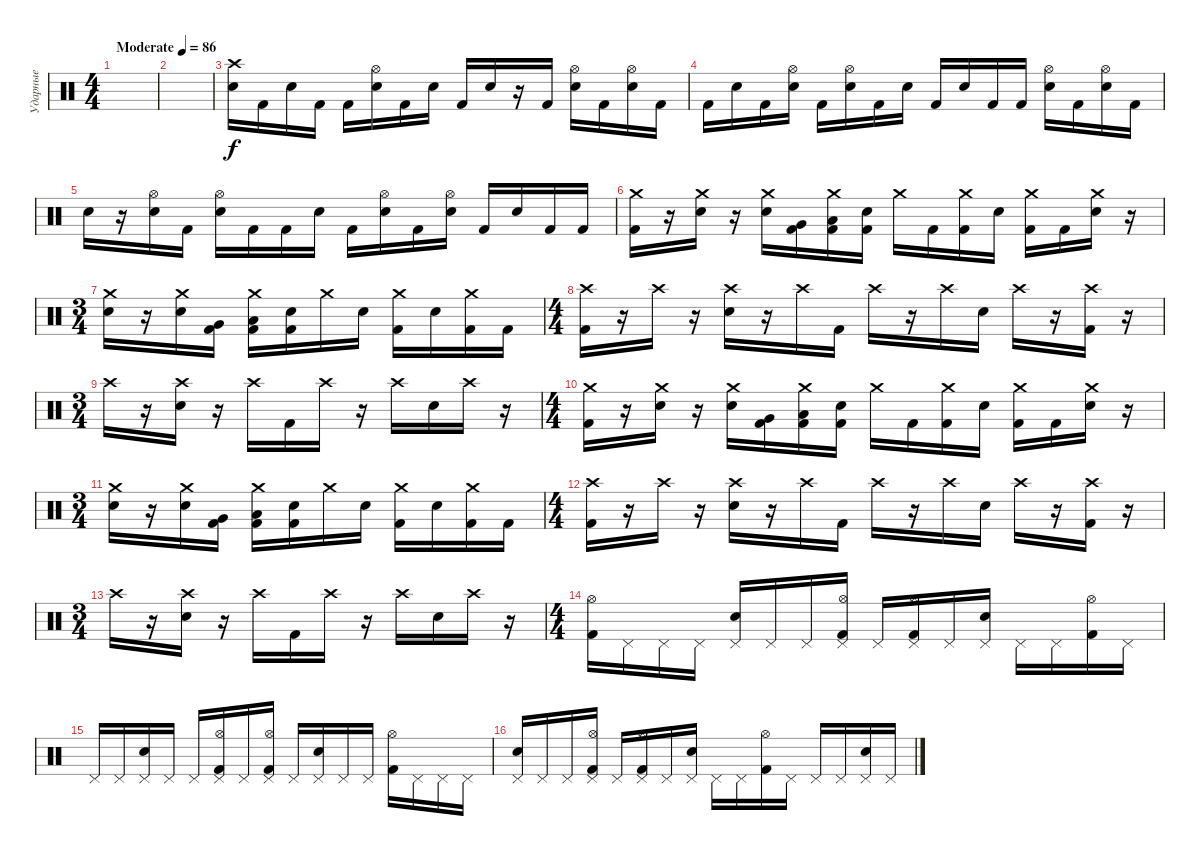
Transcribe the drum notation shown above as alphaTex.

\track ("Ударные" "Ударные") {instrument percussion}
\staff {score}
\articulation defaults
\ts (4 4)
\tempo (86 "Moderate")
\clef neutral
\ks c
|
|
("Crash high (hit)" "Electric Snare (hit)").16 "Kick (hit) 2".16 "Electric Snare (hit)".16 "Kick (hit) 2".16 "Kick (hit) 2".16 ("Hi-Hat (open)" "Electric Snare (hit)").16 "Kick (hit) 2".16 "Electric Snare (hit)".16 "Kick (hit) 2".16 "Electric Snare (hit)".16 r.16 "Kick (hit) 2".16 ("Hi-Hat (open)" "Electric Snare (hit)").16 "Kick (hit) 2".16 ("Hi-Hat (open)" "Electric Snare (hit)").16 "Kick (hit) 2".16 |
"Kick (hit) 2".16 "Electric Snare (hit)".16 "Kick (hit) 2".16 ("Hi-Hat (open)" "Electric Snare (hit)").16 "Kick (hit) 2".16 ("Hi-Hat (open)" "Electric Snare (hit)").16 "Kick (hit) 2".16 "Electric Snare (hit)".16 "Kick (hit) 2".16 "Electric Snare (hit)".16 "Kick (hit) 2".16 "Kick (hit) 2".16 ("Hi-Hat (open)" "Electric Snare (hit)").16 "Kick (hit) 2".16 ("Hi-Hat (open)" "Electric Snare (hit)").16 "Kick (hit) 2".16 |
"Electric Snare (hit)".16 r.16 ("Hi-Hat (open)" "Electric Snare (hit)").16 "Kick (hit) 2".16 ("Hi-Hat (open)" "Electric Snare (hit)").16 "Kick (hit) 2".16 "Kick (hit) 2".16 "Electric Snare (hit)".16 "Kick (hit) 2".16 ("Hi-Hat (open)" "Electric Snare (hit)").16 "Kick (hit) 2".16 ("Hi-Hat (open)" "Electric Snare (hit)").16 "Kick (hit) 2".16 "Electric Snare (hit)".16 "Kick (hit) 2".16 "Kick (hit) 2".16 |
("Crash medium (hit)" "Kick (hit) 2").16 r.16 ("Crash medium (hit)" "Electric Snare (hit)").16 r.16 ("Crash medium (hit)" "Electric Snare (hit)").16 ("Very Low Tom (hit)" "Kick (hit) 2").16 ("Crash medium (hit)" "Low Floor Tom (hit)" "Kick (hit) 2").16 ("Electric Snare (hit)" "Kick (hit) 2").16 "Crash medium (hit)".16 "Kick (hit) 2".16 ("Crash medium (hit)" "Kick (hit) 2").16 "Electric Snare (hit)".16 ("Crash medium (hit)" "Kick (hit) 2").16 "Kick (hit) 2".16 ("Crash medium (hit)" "Electric Snare (hit)").16 r.16 |
\ts (3 4)
("Crash medium (hit)" "Electric Snare (hit)").16 r.16 ("Crash medium (hit)" "Electric Snare (hit)").16 ("Very Low Tom (hit)" "Kick (hit) 2").16 ("Crash medium (hit)" "Low Floor Tom (hit)" "Kick (hit) 2").16 ("Electric Snare (hit)" "Kick (hit) 2").16 "Crash medium (hit)".16 "Electric Snare (hit)".16 ("Crash medium (hit)" "Kick (hit) 2").16 "Electric Snare (hit)".16 ("Crash medium (hit)" "Kick (hit) 2").16 "Kick (hit) 2".16 |
\ts (4 4)
("Crash high (hit)" "Kick (hit) 2").16 r.16 "Crash high (hit)".16 r.16 ("Crash high (hit)" "Electric Snare (hit)").16 r.16 "Crash high (hit)".16 "Kick (hit) 2".16 "Crash high (hit)".16 r.16 "Crash high (hit)".16 "Electric Snare (hit)".16 "Crash high (hit)".16 r.16 ("Crash high (hit)" "Kick (hit) 2").16 r.16 |
\ts (3 4)
"Crash high (hit)".16 r.16 ("Crash high (hit)" "Electric Snare (hit)").16 r.16 "Crash high (hit)".16 "Kick (hit) 2".16 "Crash high (hit)".16 r.16 "Crash high (hit)".16 "Electric Snare (hit)".16 "Crash high (hit)".16 r.16 |
\ts (4 4)
("Crash medium (hit)" "Kick (hit) 2").16 r.16 ("Crash medium (hit)" "Electric Snare (hit)").16 r.16 ("Crash medium (hit)" "Electric Snare (hit)").16 ("Very Low Tom (hit)" "Kick (hit) 2").16 ("Crash medium (hit)" "Low Floor Tom (hit)" "Kick (hit) 2").16 ("Electric Snare (hit)" "Kick (hit) 2").16 "Crash medium (hit)".16 "Kick (hit) 2".16 ("Crash medium (hit)" "Kick (hit) 2").16 "Electric Snare (hit)".16 ("Crash medium (hit)" "Kick (hit) 2").16 "Kick (hit) 2".16 ("Crash medium (hit)" "Electric Snare (hit)").16 r.16 |
\ts (3 4)
("Crash medium (hit)" "Electric Snare (hit)").16 r.16 ("Crash medium (hit)" "Electric Snare (hit)").16 ("Very Low Tom (hit)" "Kick (hit) 2").16 ("Crash medium (hit)" "Low Floor Tom (hit)" "Kick (hit) 2").16 ("Electric Snare (hit)" "Kick (hit) 2").16 "Crash medium (hit)".16 "Electric Snare (hit)".16 ("Crash medium (hit)" "Kick (hit) 2").16 "Electric Snare (hit)".16 ("Crash medium (hit)" "Kick (hit) 2").16 "Kick (hit) 2".16 |
\ts (4 4)
("Crash high (hit)" "Kick (hit) 2").16 r.16 "Crash high (hit)".16 r.16 ("Crash high (hit)" "Electric Snare (hit)").16 r.16 "Crash high (hit)".16 "Kick (hit) 2".16 "Crash high (hit)".16 r.16 "Crash high (hit)".16 "Electric Snare (hit)".16 "Crash high (hit)".16 r.16 ("Crash high (hit)" "Kick (hit) 2").16 r.16 |
\ts (3 4)
"Crash high (hit)".16 r.16 ("Crash high (hit)" "Electric Snare (hit)").16 r.16 "Crash high (hit)".16 "Kick (hit) 2".16 "Crash high (hit)".16 r.16 "Crash high (hit)".16 "Electric Snare (hit)".16 "Crash high (hit)".16 r.16 |
\ts (4 4)
("Hi-Hat (open)" "Kick (hit) 2").16 "Pedal Hi-Hat (hit)".16 "Pedal Hi-Hat (hit)".16 "Pedal Hi-Hat (hit)".16 ("Pedal Hi-Hat (hit)" "Electric Snare (hit)").16 "Pedal Hi-Hat (hit)".16 "Pedal Hi-Hat (hit)".16 ("Pedal Hi-Hat (hit)" "Hi-Hat (open)" "Kick (hit) 2").16 "Pedal Hi-Hat (hit)".16 ("Pedal Hi-Hat (hit)" "Hi-Hat (open)" "Kick (hit) 2").16 "Pedal Hi-Hat (hit)".16 ("Pedal Hi-Hat (hit)" "Electric Snare (hit)").16 "Pedal Hi-Hat (hit)".16 "Pedal Hi-Hat (hit)".16 ("Hi-Hat (open)" "Kick (hit) 2").16 "Pedal Hi-Hat (hit)".16 |
"Pedal Hi-Hat (hit)".16 "Pedal Hi-Hat (hit)".16 ("Pedal Hi-Hat (hit)" "Electric Snare (hit)").16 "Pedal Hi-Hat (hit)".16 "Pedal Hi-Hat (hit)".16 ("Pedal Hi-Hat (hit)" "Hi-Hat (open)" "Kick (hit) 2").16 "Pedal Hi-Hat (hit)".16 ("Pedal Hi-Hat (hit)" "Hi-Hat (open)" "Kick (hit) 2").16 "Pedal Hi-Hat (hit)".16 ("Pedal Hi-Hat (hit)" "Electric Snare (hit)").16 "Pedal Hi-Hat (hit)".16 "Pedal Hi-Hat (hit)".16 ("Hi-Hat (open)" "Kick (hit) 2").16 "Pedal Hi-Hat (hit)".16 "Pedal Hi-Hat (hit)".16 "Pedal Hi-Hat (hit)".16 |
("Pedal Hi-Hat (hit)" "Electric Snare (hit)").16 "Pedal Hi-Hat (hit)".16 "Pedal Hi-Hat (hit)".16 ("Pedal Hi-Hat (hit)" "Hi-Hat (open)" "Kick (hit) 2").16 "Pedal Hi-Hat (hit)".16 ("Pedal Hi-Hat (hit)" "Hi-Hat (open)" "Kick (hit) 2").16 "Pedal Hi-Hat (hit)".16 ("Pedal Hi-Hat (hit)" "Electric Snare (hit)").16 "Pedal Hi-Hat (hit)".16 "Pedal Hi-Hat (hit)".16 ("Hi-Hat (open)" "Kick (hit) 2").16 "Pedal Hi-Hat (hit)".16 "Pedal Hi-Hat (hit)".16 "Pedal Hi-Hat (hit)".16 ("Pedal Hi-Hat (hit)" "Electric Snare (hit)").16 "Pedal Hi-Hat (hit)".16
